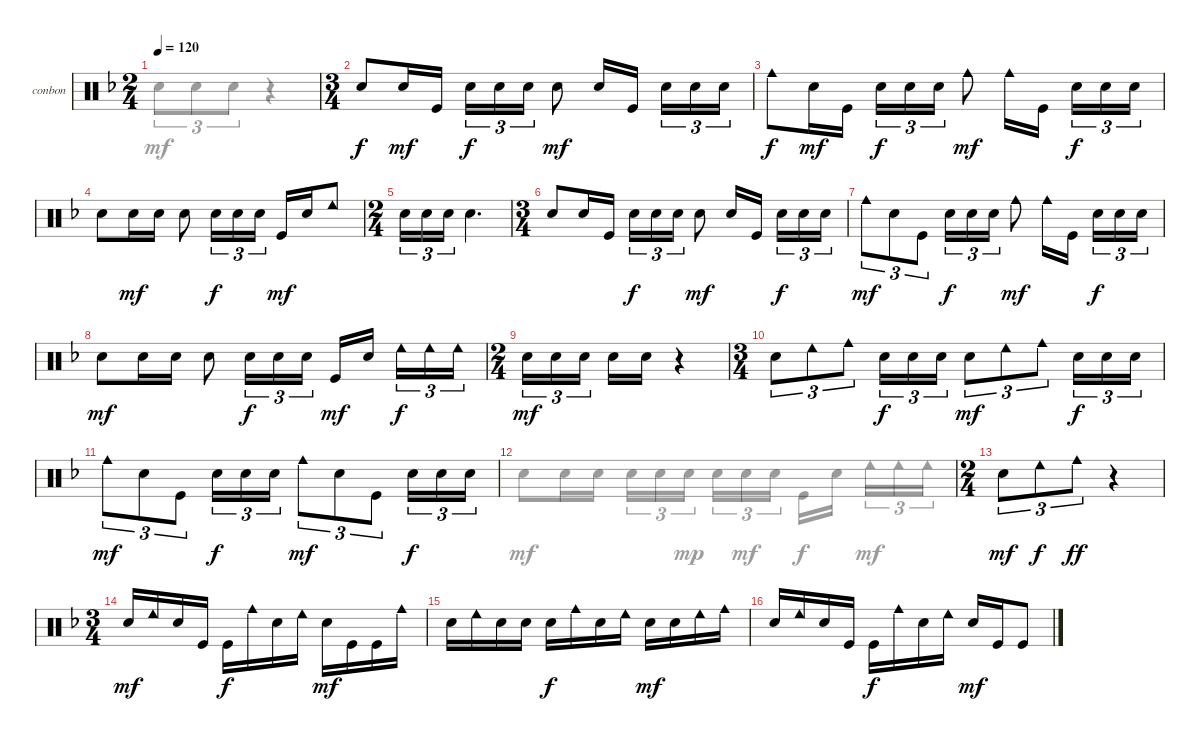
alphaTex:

\defaultSystemsLayout 4
\bracketExtendMode groupsimilarinstruments
\firstSystemTrackNameOrientation horizontal
\otherSystemsTrackNameOrientation horizontal
\track ("Bongos N Congas" "conbon") {instrument percussion}
\staff {score}
\articulation defaults
\voice
\ts (2 4)
\tempo 120
\clef neutral
\ks f
|
\ts (3 4)
"Snare (hit) 2".8 "Snare (hit) 2".16{dy mf} "Kick (hit)".16 "Snare (hit) 2".16{tu (3 2) dy f} "Snare (hit) 2".16{tu (3 2)} "Snare (hit) 2".16{tu (3 2)} "Snare (hit) 2".8{dy mf} "Snare (hit) 2".16 "Kick (hit)".16 "Snare (hit) 2".16{tu (3 2)} "Snare (hit) 2".16{tu (3 2)} "Snare (hit) 2".16{tu (3 2)} |
"Cowbell medium (hit)".8{dy f} "Snare (hit) 2".16{dy mf} "Kick (hit)".16 "Snare (hit) 2".16{tu (3 2) dy f} "Snare (hit) 2".16{tu (3 2)} "Snare (hit) 2".16{tu (3 2)} "Cowbell medium (hit)".8{dy mf} "Cowbell medium (hit)".16 "Kick (hit)".16 "Snare (hit) 2".16{tu (3 2) dy f} "Snare (hit) 2".16{tu (3 2)} "Snare (hit) 2".16{tu (3 2)} |
"Snare (hit) 2".8 "Snare (hit) 2".16{dy mf} "Snare (hit) 2".16 "Snare (hit) 2".8 "Snare (hit) 2".16{tu (3 2) dy f} "Snare (hit) 2".16{tu (3 2)} "Snare (hit) 2".16{tu (3 2)} "Kick (hit)".16{dy mf} "Snare (hit) 2".16 "Cowbell low (hit)".8 |
\ts (2 4)
"Snare (hit) 2".16{tu (3 2)} "Snare (hit) 2".16{tu (3 2)} "Snare (hit) 2".16{tu (3 2)} "Snare (hit) 2".4{d} |
\ts (3 4)
"Snare (hit) 2".8 "Snare (hit) 2".16 "Kick (hit)".16 "Snare (hit) 2".16{tu (3 2) dy f} "Snare (hit) 2".16{tu (3 2)} "Snare (hit) 2".16{tu (3 2)} "Snare (hit) 2".8{dy mf} "Snare (hit) 2".16 "Kick (hit)".16 "Snare (hit) 2".16{tu (3 2) dy f} "Snare (hit) 2".16{tu (3 2)} "Snare (hit) 2".16{tu (3 2)} |
"Cowbell medium (hit)".8{tu (3 2) dy mf} "Snare (hit) 2".8{tu (3 2)} "Kick (hit)".8{tu (3 2)} "Snare (hit) 2".16{tu (3 2) dy f} "Snare (hit) 2".16{tu (3 2)} "Snare (hit) 2".16{tu (3 2)} "Cowbell medium (hit)".8{dy mf} "Cowbell medium (hit)".16 "Kick (hit)".16 "Snare (hit) 2".16{tu (3 2) dy f} "Snare (hit) 2".16{tu (3 2)} "Snare (hit) 2".16{tu (3 2)} |
"Snare (hit) 2".8{dy mf} "Snare (hit) 2".16 "Snare (hit) 2".16 "Snare (hit) 2".8 "Snare (hit) 2".16{tu (3 2) dy f} "Snare (hit) 2".16{tu (3 2)} "Snare (hit) 2".16{tu (3 2)} "Kick (hit)".16{dy mf} "Snare (hit) 2".16 "Cowbell low (hit)".16{tu (3 2) dy f} "Cowbell low (hit)".16{tu (3 2)} "Cowbell low (hit)".16{tu (3 2)} |
\ts (2 4)
"Snare (hit) 2".16{tu (3 2) dy mf} "Snare (hit) 2".16{tu (3 2)} "Snare (hit) 2".16{tu (3 2)} "Snare (hit) 2".16 "Snare (hit) 2".16 r.4 |
\ts (3 4)
"Snare (hit) 2".8{tu (3 2)} "Cowbell low (hit)".8{tu (3 2)} "Cowbell medium (hit)".8{tu (3 2)} "Snare (hit) 2".16{tu (3 2) dy f} "Snare (hit) 2".16{tu (3 2)} "Snare (hit) 2".16{tu (3 2)} "Snare (hit) 2".8{tu (3 2) dy mf} "Cowbell low (hit)".8{tu (3 2)} "Cowbell medium (hit)".8{tu (3 2)} "Snare (hit) 2".16{tu (3 2) dy f} "Snare (hit) 2".16{tu (3 2)} "Snare (hit) 2".16{tu (3 2)} |
"Cowbell medium (hit)".8{tu (3 2) dy mf} "Snare (hit) 2".8{tu (3 2)} "Kick (hit)".8{tu (3 2)} "Snare (hit) 2".16{tu (3 2) dy f} "Snare (hit) 2".16{tu (3 2)} "Snare (hit) 2".16{tu (3 2)} "Cowbell medium (hit)".8{tu (3 2) dy mf} "Snare (hit) 2".8{tu (3 2)} "Kick (hit)".8{tu (3 2)} "Snare (hit) 2".16{tu (3 2) dy f} "Snare (hit) 2".16{tu (3 2)} "Snare (hit) 2".16{tu (3 2)} |
|
\ts (2 4)
"Snare (hit) 2".8{tu (3 2) dy mf} "Cowbell low (hit)".8{tu (3 2) dy f} "Cowbell medium (hit)".8{tu (3 2) dy ff} r.4 |
\ts (3 4)
"Snare (hit) 2".16{dy mf} "Cowbell low (hit)".16 "Snare (hit) 2".16 "Kick (hit)".16 "Kick (hit)".16{dy f} "Cowbell medium (hit)".16 "Snare (hit) 2".16 "Cowbell low (hit)".16 "Snare (hit) 2".16{dy mf} "Kick (hit)".16 "Kick (hit)".16 "Cowbell medium (hit)".16 |
"Snare (hit) 2".16 "Cowbell low (hit)".16 "Snare (hit) 2".16 "Snare (hit) 2".16 "Snare (hit) 2".16{dy f} "Cowbell medium (hit)".16 "Snare (hit) 2".16 "Cowbell low (hit)".16 "Snare (hit) 2".16{dy mf} "Snare (hit) 2".16 "Cowbell low (hit)".16 "Cowbell medium (hit)".16 |
"Snare (hit) 2".16 "Cowbell low (hit)".16 "Snare (hit) 2".16 "Kick (hit)".16 "Kick (hit)".16{dy f} "Cowbell medium (hit)".16 "Snare (hit) 2".16 "Cowbell low (hit)".16 "Snare (hit) 2".16{dy mf} "Kick (hit)".16 "Kick (hit)".8
\voice
\clef neutral
\ottava regular
\simile none
\ks f "Snare (hit) 2".8{tu (3 2) dy mf} "Snare (hit) 2".8{tu (3 2)} "Snare (hit) 2".8{tu (3 2)}
r.4 |
|
|
|
|
|
|
|
|
|
|
|
|
|
|
\voice
\clef neutral
\ottava regular
\simile none
\ks f
|
|
|
|
|
|
|
|
|
|
|
"Snare (hit) 2".8 "Snare (hit) 2".16 "Snare (hit) 2".16 "Snare (hit) 2".16{tu (3 2)} "Snare (hit) 2".16{tu (3 2)} "Snare (hit) 2".16{tu (3 2) dy mp} "Snare (hit) 2".16{tu (3 2)} "Snare (hit) 2".16{tu (3 2) dy mf} "Snare (hit) 2".16{tu (3 2)} "Kick (hit)".16{dy f} "Snare (hit) 2".16 "Cowbell low (hit)".16{tu (3 2) dy mf} "Cowbell low (hit)".16{tu (3 2)} "Cowbell low (hit)".16{tu (3 2)} |
|
|
|
